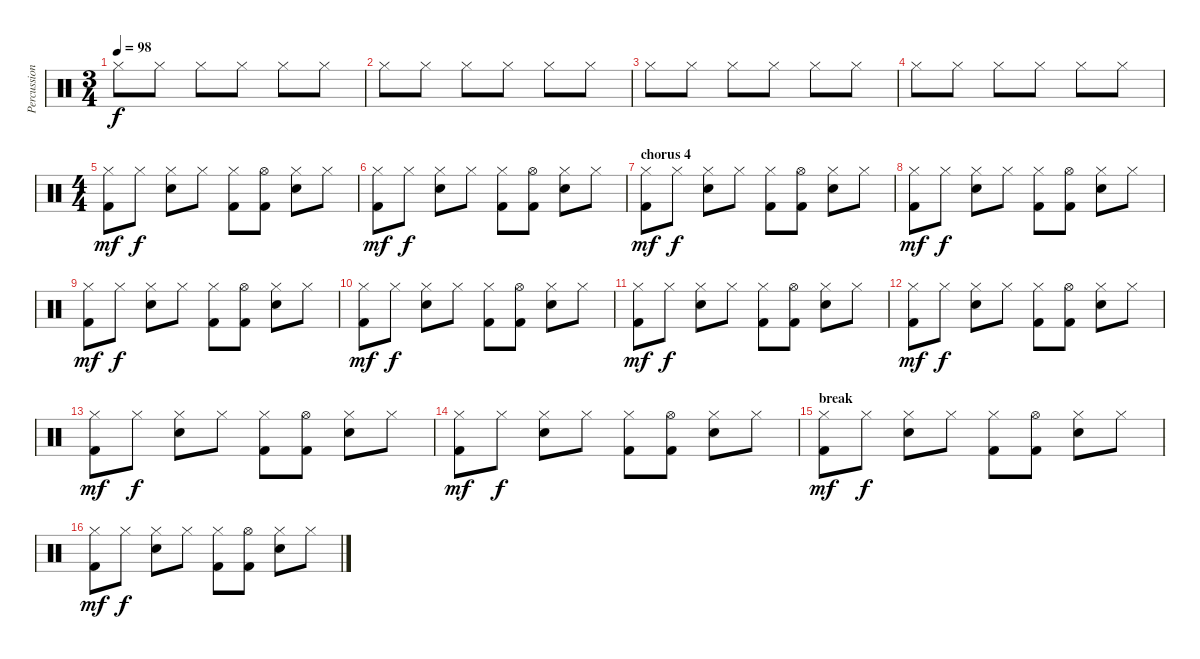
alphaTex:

\track ("Percussion" "Percussion") {instrument percussion}
\staff {score}
\articulation defaults
\ts (3 4)
\tempo 98
\clef neutral
\ks c "Hi-Hat (closed)".8{dy f} "Hi-Hat (closed)".8 "Hi-Hat (closed)".8 "Hi-Hat (closed)".8 "Hi-Hat (closed)".8 "Hi-Hat (closed)".8
|
"Hi-Hat (closed)".8 "Hi-Hat (closed)".8 "Hi-Hat (closed)".8 "Hi-Hat (closed)".8 "Hi-Hat (closed)".8 "Hi-Hat (closed)".8 |
"Hi-Hat (closed)".8 "Hi-Hat (closed)".8 "Hi-Hat (closed)".8 "Hi-Hat (closed)".8 "Hi-Hat (closed)".8 "Hi-Hat (closed)".8 |
"Hi-Hat (closed)".8 "Hi-Hat (closed)".8 "Hi-Hat (closed)".8 "Hi-Hat (closed)".8 "Hi-Hat (closed)".8 "Hi-Hat (closed)".8 |
\ts (4 4)
("Hi-Hat (closed)" "Kick (hit) 2").8{dy mf} "Hi-Hat (closed)".8{dy f} ("Hi-Hat (closed)" "Snare (hit) 2").8 "Hi-Hat (closed)".8 ("Hi-Hat (closed)" "Kick (hit) 2").8 ("Hi-Hat (open)" "Kick (hit) 2").8 ("Hi-Hat (closed)" "Snare (hit) 2").8 "Hi-Hat (closed)".8 |
("Hi-Hat (closed)" "Kick (hit) 2").8{dy mf} "Hi-Hat (closed)".8{dy f} ("Hi-Hat (closed)" "Snare (hit) 2").8 "Hi-Hat (closed)".8 ("Hi-Hat (closed)" "Kick (hit) 2").8 ("Hi-Hat (open)" "Kick (hit) 2").8 ("Hi-Hat (closed)" "Snare (hit) 2").8 "Hi-Hat (closed)".8 |
\section ("" "chorus 4")
("Hi-Hat (closed)" "Kick (hit) 2").8{dy mf} "Hi-Hat (closed)".8{dy f} ("Hi-Hat (closed)" "Snare (hit) 2").8 "Hi-Hat (closed)".8 ("Hi-Hat (closed)" "Kick (hit) 2").8 ("Hi-Hat (open)" "Kick (hit) 2").8 ("Hi-Hat (closed)" "Snare (hit) 2").8 "Hi-Hat (closed)".8 |
("Hi-Hat (closed)" "Kick (hit) 2").8{dy mf} "Hi-Hat (closed)".8{dy f} ("Hi-Hat (closed)" "Snare (hit) 2").8 "Hi-Hat (closed)".8 ("Hi-Hat (closed)" "Kick (hit) 2").8 ("Hi-Hat (open)" "Kick (hit) 2").8 ("Hi-Hat (closed)" "Snare (hit) 2").8 "Hi-Hat (closed)".8 |
("Hi-Hat (closed)" "Kick (hit) 2").8{dy mf} "Hi-Hat (closed)".8{dy f} ("Hi-Hat (closed)" "Snare (hit) 2").8 "Hi-Hat (closed)".8 ("Hi-Hat (closed)" "Kick (hit) 2").8 ("Hi-Hat (open)" "Kick (hit) 2").8 ("Hi-Hat (closed)" "Snare (hit) 2").8 "Hi-Hat (closed)".8 |
("Hi-Hat (closed)" "Kick (hit) 2").8{dy mf} "Hi-Hat (closed)".8{dy f} ("Hi-Hat (closed)" "Snare (hit) 2").8 "Hi-Hat (closed)".8 ("Hi-Hat (closed)" "Kick (hit) 2").8 ("Hi-Hat (open)" "Kick (hit) 2").8 ("Hi-Hat (closed)" "Snare (hit) 2").8 "Hi-Hat (closed)".8 |
("Hi-Hat (closed)" "Kick (hit) 2").8{dy mf} "Hi-Hat (closed)".8{dy f} ("Hi-Hat (closed)" "Snare (hit) 2").8 "Hi-Hat (closed)".8 ("Hi-Hat (closed)" "Kick (hit) 2").8 ("Hi-Hat (open)" "Kick (hit) 2").8 ("Hi-Hat (closed)" "Snare (hit) 2").8 "Hi-Hat (closed)".8 |
("Hi-Hat (closed)" "Kick (hit) 2").8{dy mf} "Hi-Hat (closed)".8{dy f} ("Hi-Hat (closed)" "Snare (hit) 2").8 "Hi-Hat (closed)".8 ("Hi-Hat (closed)" "Kick (hit) 2").8 ("Hi-Hat (open)" "Kick (hit) 2").8 ("Hi-Hat (closed)" "Snare (hit) 2").8 "Hi-Hat (closed)".8 |
("Hi-Hat (closed)" "Kick (hit) 2").8{dy mf} "Hi-Hat (closed)".8{dy f} ("Hi-Hat (closed)" "Snare (hit) 2").8 "Hi-Hat (closed)".8 ("Hi-Hat (closed)" "Kick (hit) 2").8 ("Hi-Hat (open)" "Kick (hit) 2").8 ("Hi-Hat (closed)" "Snare (hit) 2").8 "Hi-Hat (closed)".8 |
("Hi-Hat (closed)" "Kick (hit) 2").8{dy mf} "Hi-Hat (closed)".8{dy f} ("Hi-Hat (closed)" "Snare (hit) 2").8 "Hi-Hat (closed)".8 ("Hi-Hat (closed)" "Kick (hit) 2").8 ("Hi-Hat (open)" "Kick (hit) 2").8 ("Hi-Hat (closed)" "Snare (hit) 2").8 "Hi-Hat (closed)".8 |
\section ("" "break")
("Hi-Hat (closed)" "Kick (hit) 2").8{dy mf} "Hi-Hat (closed)".8{dy f} ("Hi-Hat (closed)" "Snare (hit) 2").8 "Hi-Hat (closed)".8 ("Hi-Hat (closed)" "Kick (hit) 2").8 ("Hi-Hat (open)" "Kick (hit) 2").8 ("Hi-Hat (closed)" "Snare (hit) 2").8 "Hi-Hat (closed)".8 |
("Hi-Hat (closed)" "Kick (hit) 2").8{dy mf} "Hi-Hat (closed)".8{dy f} ("Hi-Hat (closed)" "Snare (hit) 2").8 "Hi-Hat (closed)".8 ("Hi-Hat (closed)" "Kick (hit) 2").8 ("Hi-Hat (open)" "Kick (hit) 2").8 ("Hi-Hat (closed)" "Snare (hit) 2").8 "Hi-Hat (closed)".8
